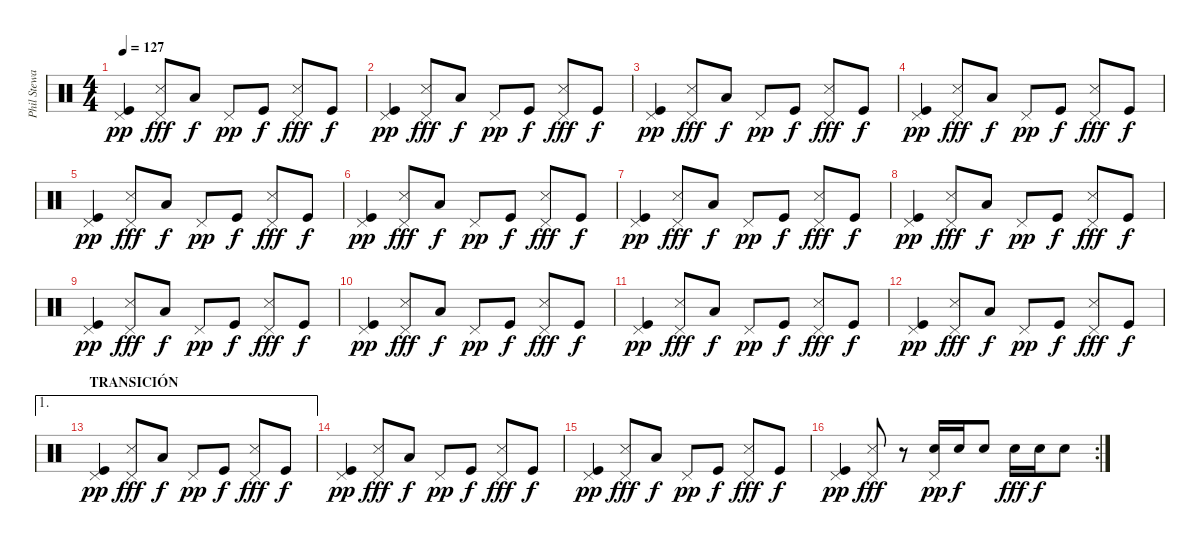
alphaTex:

\track ("Phil Steway" "Phil Stewa") {instrument percussion}
\staff {score}
\articulation defaults
\ts (4 4)
\tempo 127
\clef neutral
\ks c
("Pedal Hi-Hat (hit)" "Kick (hit)").4{dy pp} ("Pedal Hi-Hat (hit)" "Snare (side stick) 3").8{dy fff} "Low Tom (hit)".8{dy f} "Pedal Hi-Hat (hit)".8{dy pp} "Kick (hit)".8{dy f} ("Pedal Hi-Hat (hit)" "Snare (side stick) 3").8{dy fff} "Kick (hit)".8{dy f} |
("Pedal Hi-Hat (hit)" "Kick (hit)").4{dy pp} ("Pedal Hi-Hat (hit)" "Snare (side stick) 3").8{dy fff} "Low Tom (hit)".8{dy f} "Pedal Hi-Hat (hit)".8{dy pp} "Kick (hit)".8{dy f} ("Pedal Hi-Hat (hit)" "Snare (side stick) 3").8{dy fff} "Kick (hit)".8{dy f} |
("Pedal Hi-Hat (hit)" "Kick (hit)").4{dy pp} ("Pedal Hi-Hat (hit)" "Snare (side stick) 3").8{dy fff} "Low Tom (hit)".8{dy f} "Pedal Hi-Hat (hit)".8{dy pp} "Kick (hit)".8{dy f} ("Pedal Hi-Hat (hit)" "Snare (side stick) 3").8{dy fff} "Kick (hit)".8{dy f} |
("Pedal Hi-Hat (hit)" "Kick (hit)").4{dy pp} ("Pedal Hi-Hat (hit)" "Snare (side stick) 3").8{dy fff} "Low Tom (hit)".8{dy f} "Pedal Hi-Hat (hit)".8{dy pp} "Kick (hit)".8{dy f} ("Pedal Hi-Hat (hit)" "Snare (side stick) 3").8{dy fff} "Kick (hit)".8{dy f} |
("Pedal Hi-Hat (hit)" "Kick (hit)").4{dy pp} ("Pedal Hi-Hat (hit)" "Snare (side stick) 3").8{dy fff} "Low Tom (hit)".8{dy f} "Pedal Hi-Hat (hit)".8{dy pp} "Kick (hit)".8{dy f} ("Pedal Hi-Hat (hit)" "Snare (side stick) 3").8{dy fff} "Kick (hit)".8{dy f} |
("Pedal Hi-Hat (hit)" "Kick (hit)").4{dy pp} ("Pedal Hi-Hat (hit)" "Snare (side stick) 3").8{dy fff} "Low Tom (hit)".8{dy f} "Pedal Hi-Hat (hit)".8{dy pp} "Kick (hit)".8{dy f} ("Pedal Hi-Hat (hit)" "Snare (side stick) 3").8{dy fff} "Kick (hit)".8{dy f} |
("Pedal Hi-Hat (hit)" "Kick (hit)").4{dy pp} ("Pedal Hi-Hat (hit)" "Snare (side stick) 3").8{dy fff} "Low Tom (hit)".8{dy f} "Pedal Hi-Hat (hit)".8{dy pp} "Kick (hit)".8{dy f} ("Pedal Hi-Hat (hit)" "Snare (side stick) 3").8{dy fff} "Kick (hit)".8{dy f} |
("Pedal Hi-Hat (hit)" "Kick (hit)").4{dy pp} ("Pedal Hi-Hat (hit)" "Snare (side stick) 3").8{dy fff} "Low Tom (hit)".8{dy f} "Pedal Hi-Hat (hit)".8{dy pp} "Kick (hit)".8{dy f} ("Pedal Hi-Hat (hit)" "Snare (side stick) 3").8{dy fff} "Kick (hit)".8{dy f} |
("Pedal Hi-Hat (hit)" "Kick (hit)").4{dy pp} ("Pedal Hi-Hat (hit)" "Snare (side stick) 3").8{dy fff} "Low Tom (hit)".8{dy f} "Pedal Hi-Hat (hit)".8{dy pp} "Kick (hit)".8{dy f} ("Pedal Hi-Hat (hit)" "Snare (side stick) 3").8{dy fff} "Kick (hit)".8{dy f} |
("Pedal Hi-Hat (hit)" "Kick (hit)").4{dy pp} ("Pedal Hi-Hat (hit)" "Snare (side stick) 3").8{dy fff} "Low Tom (hit)".8{dy f} "Pedal Hi-Hat (hit)".8{dy pp} "Kick (hit)".8{dy f} ("Pedal Hi-Hat (hit)" "Snare (side stick) 3").8{dy fff} "Kick (hit)".8{dy f} |
("Pedal Hi-Hat (hit)" "Kick (hit)").4{dy pp} ("Pedal Hi-Hat (hit)" "Snare (side stick) 3").8{dy fff} "Low Tom (hit)".8{dy f} "Pedal Hi-Hat (hit)".8{dy pp} "Kick (hit)".8{dy f} ("Pedal Hi-Hat (hit)" "Snare (side stick) 3").8{dy fff} "Kick (hit)".8{dy f} |
("Pedal Hi-Hat (hit)" "Kick (hit)").4{dy pp} ("Pedal Hi-Hat (hit)" "Snare (side stick) 3").8{dy fff} "Low Tom (hit)".8{dy f} "Pedal Hi-Hat (hit)".8{dy pp} "Kick (hit)".8{dy f} ("Pedal Hi-Hat (hit)" "Snare (side stick) 3").8{dy fff} "Kick (hit)".8{dy f} |
\ae 1
\section ("" "TRANSICIÓN")
("Pedal Hi-Hat (hit)" "Kick (hit)").4{dy pp} ("Pedal Hi-Hat (hit)" "Snare (side stick) 3").8{dy fff} "Low Tom (hit)".8{dy f} "Pedal Hi-Hat (hit)".8{dy pp} "Kick (hit)".8{dy f} ("Pedal Hi-Hat (hit)" "Snare (side stick) 3").8{dy fff} "Kick (hit)".8{dy f} |
("Pedal Hi-Hat (hit)" "Kick (hit)").4{dy pp} ("Pedal Hi-Hat (hit)" "Snare (side stick) 3").8{dy fff} "Low Tom (hit)".8{dy f} "Pedal Hi-Hat (hit)".8{dy pp} "Kick (hit)".8{dy f} ("Pedal Hi-Hat (hit)" "Snare (side stick) 3").8{dy fff} "Kick (hit)".8{dy f} |
("Pedal Hi-Hat (hit)" "Kick (hit)").4{dy pp} ("Pedal Hi-Hat (hit)" "Snare (side stick) 3").8{dy fff} "Low Tom (hit)".8{dy f} "Pedal Hi-Hat (hit)".8{dy pp} "Kick (hit)".8{dy f} ("Pedal Hi-Hat (hit)" "Snare (side stick) 3").8{dy fff} "Kick (hit)".8{dy f} |
\rc 2
("Pedal Hi-Hat (hit)" "Kick (hit)").4{dy pp} ("Pedal Hi-Hat (hit)" "Snare (side stick) 3").8{dy fff} r.8 ("Pedal Hi-Hat (hit)" "Electric Snare (hit)").16{dy pp} "Electric Snare (hit)".16{dy f} "Electric Snare (hit)".8 "Electric Snare (hit)".16{dy fff} "Electric Snare (hit)".16{dy f} "Electric Snare (hit)".8
